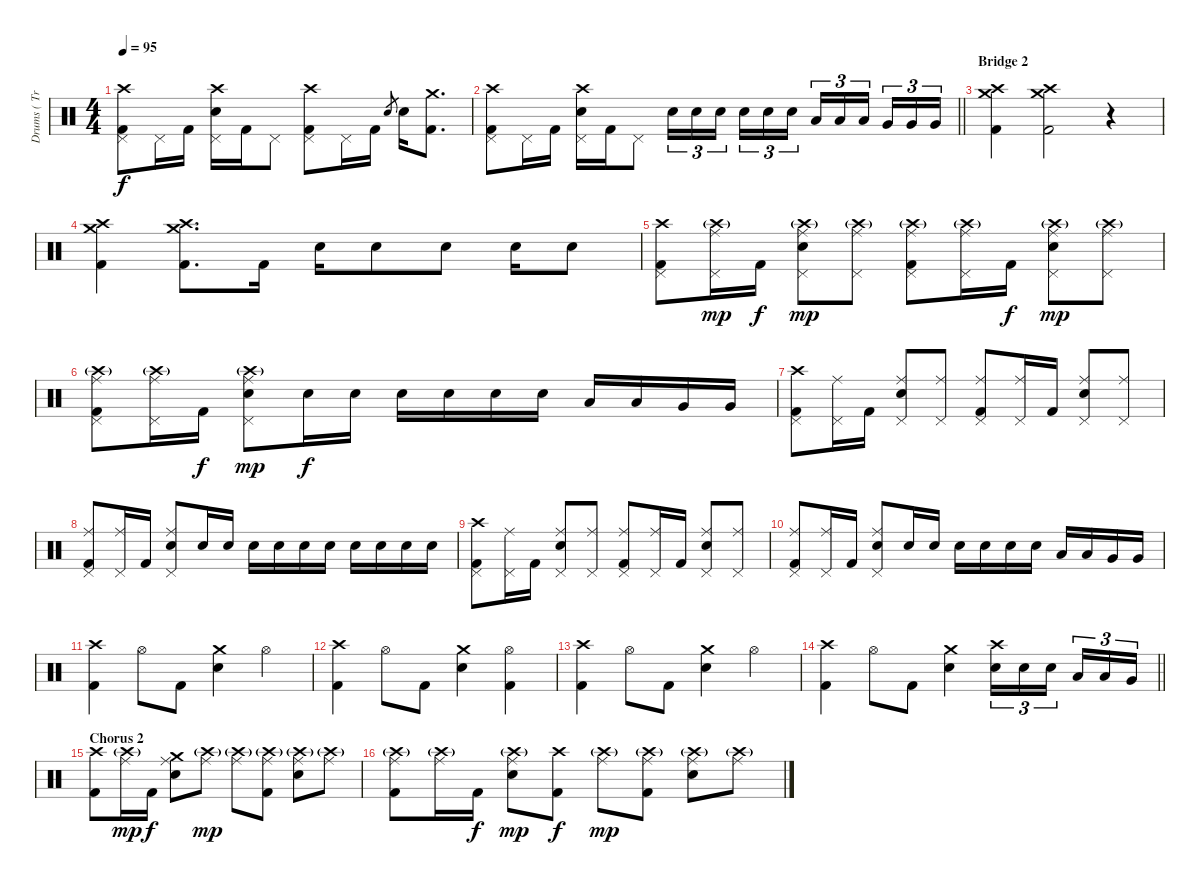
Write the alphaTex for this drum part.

\track ("Drums ( Trivett Wingo )" "Drums ( Tr") {instrument percussion}
\staff {score}
\articulation defaults
\ts (4 4)
\tempo 95
\clef neutral
\ks c
("Crash high (hit)" "Pedal Hi-Hat (hit)" "Kick (hit) 2").8{dy f} "Pedal Hi-Hat (hit)".16 "Kick (hit) 2".16 ("Crash high (hit)" "Pedal Hi-Hat (hit)" "Electric Snare (hit)").16 "Kick (hit) 2".16 "Pedal Hi-Hat (hit)".8 ("Crash high (hit)" "Pedal Hi-Hat (hit)" "Kick (hit) 2").8 "Pedal Hi-Hat (hit)".16 "Kick (hit) 2".16 "Electric Snare (hit)".8{gr} "Electric Snare (hit)".16 ("Crash medium (hit)" "Kick (hit) 2").8{d} |
\barLineRight lightlight
("Crash high (hit)" "Pedal Hi-Hat (hit)" "Kick (hit) 2").8 "Pedal Hi-Hat (hit)".16 "Kick (hit) 2".16 ("Crash high (hit)" "Pedal Hi-Hat (hit)" "Electric Snare (hit)").16 "Kick (hit) 2".16 "Pedal Hi-Hat (hit)".8 "Electric Snare (hit)".16{tu (3 2)} "Electric Snare (hit)".16{tu (3 2)} "Electric Snare (hit)".16{tu (3 2) beam splitsecondary} "Electric Snare (hit)".16{tu (3 2)} "Electric Snare (hit)".16{tu (3 2)} "Electric Snare (hit)".16{tu (3 2)} "Low Tom (hit)".16{tu (3 2)} "Low Tom (hit)".16{tu (3 2)} "Low Tom (hit)".16{tu (3 2) beam splitsecondary} "Very Low Tom (hit)".16{tu (3 2)} "Very Low Tom (hit)".16{tu (3 2)} "Very Low Tom (hit)".16{tu (3 2)} |
\section ("" "Bridge 2")
("Crash high (hit)" "Crash medium (hit)" "Kick (hit) 2").4 ("Crash high (hit)" "Crash medium (hit)" "Kick (hit) 2").2 r.4 |
("Crash high (hit)" "Crash medium (hit)" "Kick (hit) 2").4 ("Crash high (hit)" "Crash medium (hit)" "Kick (hit) 2").8{d} "Kick (hit) 2".16 "Electric Snare (hit)".16 "Electric Snare (hit)".8 "Electric Snare (hit)".8 "Electric Snare (hit)".16 "Electric Snare (hit)".8 |
("Crash high (hit)" "Pedal Hi-Hat (hit)" "Kick (hit) 2").8 ("Crash high (hit)"{g} "Ride (middle)" "Pedal Hi-Hat (hit)").16{dy mp} "Kick (hit) 2".16{dy f} ("Crash high (hit)"{g} "Ride (middle)" "Pedal Hi-Hat (hit)" "Electric Snare (hit)").8{dy mp} ("Crash high (hit)"{g} "Ride (middle)" "Pedal Hi-Hat (hit)").8 ("Crash high (hit)"{g} "Ride (middle)" "Pedal Hi-Hat (hit)" "Kick (hit) 2").8 ("Crash high (hit)"{g} "Ride (middle)" "Pedal Hi-Hat (hit)").16 "Kick (hit) 2".16{dy f} ("Crash high (hit)"{g} "Ride (middle)" "Pedal Hi-Hat (hit)" "Electric Snare (hit)").8{dy mp} ("Crash high (hit)"{g} "Ride (middle)" "Pedal Hi-Hat (hit)").8 |
("Crash high (hit)"{g} "Ride (middle)" "Pedal Hi-Hat (hit)" "Kick (hit) 2").8 ("Crash high (hit)"{g} "Ride (middle)" "Pedal Hi-Hat (hit)").16 "Kick (hit) 2".16{dy f} ("Crash high (hit)"{g} "Ride (middle)" "Pedal Hi-Hat (hit)" "Electric Snare (hit)").8{dy mp} "Electric Snare (hit)".16{dy f} "Electric Snare (hit)".16 "Electric Snare (hit)".16 "Electric Snare (hit)".16 "Electric Snare (hit)".16 "Electric Snare (hit)".16 "Low Tom (hit)".16 "Low Tom (hit)".16 "Very Low Tom (hit)".16 "Very Low Tom (hit)".16 |
("Crash high (hit)" "Pedal Hi-Hat (hit)" "Kick (hit) 2").8 ("Ride (middle)" "Pedal Hi-Hat (hit)").16 "Kick (hit) 2".16 ("Ride (middle)" "Pedal Hi-Hat (hit)" "Electric Snare (hit)").8 ("Ride (middle)" "Pedal Hi-Hat (hit)").8 ("Ride (middle)" "Pedal Hi-Hat (hit)" "Kick (hit) 2").8 ("Ride (middle)" "Pedal Hi-Hat (hit)").16 "Kick (hit) 2".16 ("Ride (middle)" "Pedal Hi-Hat (hit)" "Electric Snare (hit)").8 ("Ride (middle)" "Pedal Hi-Hat (hit)").8 |
("Ride (middle)" "Pedal Hi-Hat (hit)" "Kick (hit) 2").8 ("Ride (middle)" "Pedal Hi-Hat (hit)").16 "Kick (hit) 2".16 ("Ride (middle)" "Pedal Hi-Hat (hit)" "Electric Snare (hit)").8 "Electric Snare (hit)".16 "Electric Snare (hit)".16 "Electric Snare (hit)".16 "Electric Snare (hit)".16 "Electric Snare (hit)".16 "Electric Snare (hit)".16 "Electric Snare (hit)".16 "Electric Snare (hit)".16 "Electric Snare (hit)".16 "Electric Snare (hit)".16 |
("Crash high (hit)" "Pedal Hi-Hat (hit)" "Kick (hit) 2").8 ("Ride (middle)" "Pedal Hi-Hat (hit)").16 "Kick (hit) 2".16 ("Ride (middle)" "Pedal Hi-Hat (hit)" "Electric Snare (hit)").8 ("Ride (middle)" "Pedal Hi-Hat (hit)").8 ("Ride (middle)" "Pedal Hi-Hat (hit)" "Kick (hit) 2").8 ("Ride (middle)" "Pedal Hi-Hat (hit)").16 "Kick (hit) 2".16 ("Ride (middle)" "Pedal Hi-Hat (hit)" "Electric Snare (hit)").8 ("Ride (middle)" "Pedal Hi-Hat (hit)").8 |
("Ride (middle)" "Pedal Hi-Hat (hit)" "Kick (hit) 2").8 ("Ride (middle)" "Pedal Hi-Hat (hit)").16 "Kick (hit) 2".16 ("Ride (middle)" "Pedal Hi-Hat (hit)" "Electric Snare (hit)").8 "Electric Snare (hit)".16 "Electric Snare (hit)".16 "Electric Snare (hit)".16 "Electric Snare (hit)".16 "Electric Snare (hit)".16 "Electric Snare (hit)".16 "Low Tom (hit)".16 "Low Tom (hit)".16 "Very Low Tom (hit)".16 "Very Low Tom (hit)".16 |
("Crash high (hit)" "Kick (hit) 2").4 "Hi-Hat (open)".8 "Kick (hit) 2".8 ("Crash medium (hit)" "Electric Snare (hit)").4 "Hi-Hat (open)".4 |
("Crash high (hit)" "Kick (hit) 2").4 "Hi-Hat (open)".8 "Kick (hit) 2".8 ("Crash medium (hit)" "Electric Snare (hit)").4 ("Hi-Hat (open)" "Kick (hit) 2").4 |
("Crash high (hit)" "Kick (hit) 2").4 "Hi-Hat (open)".8 "Kick (hit) 2".8 ("Crash medium (hit)" "Electric Snare (hit)").4 "Hi-Hat (open)".4 |
\barLineRight lightlight
("Crash high (hit)" "Kick (hit) 2").4 "Hi-Hat (open)".8 "Kick (hit) 2".8 ("Crash medium (hit)" "Electric Snare (hit)").4 ("Crash high (hit)" "Electric Snare (hit)").16{tu (3 2)} "Electric Snare (hit)".16{tu (3 2)} "Electric Snare (hit)".16{tu (3 2) beam splitsecondary} "Low Tom (hit)".16{tu (3 2)} "Low Tom (hit)".16{tu (3 2)} "Very Low Tom (hit)".16{tu (3 2)} |
\section ("" "Chorus 2")
("Crash high (hit)" "Kick (hit) 2").8 ("Crash high (hit)"{g} "Ride (middle)").16{dy mp} "Kick (hit) 2".16{dy f} ("Crash medium (hit)" "Ride (middle)" "Electric Snare (hit)").8 ("Crash high (hit)"{g} "Ride (middle)").8{dy mp} ("Crash high (hit)"{g} "Ride (middle)").8 ("Crash high (hit)"{g} "Ride (middle)" "Kick (hit) 2").8 ("Crash high (hit)"{g} "Ride (middle)" "Electric Snare (hit)").8 ("Crash high (hit)"{g} "Ride (middle)").8 |
("Crash high (hit)"{g} "Ride (middle)" "Kick (hit) 2").8 ("Crash high (hit)"{g} "Ride (middle)").16 "Kick (hit) 2".16{dy f} ("Crash high (hit)"{g} "Ride (middle)" "Electric Snare (hit)").8{dy mp} ("Crash high (hit)" "Kick (hit) 2").8{dy f} ("Crash high (hit)"{g} "Ride (middle)").8{dy mp} ("Crash high (hit)"{g} "Ride (middle)" "Kick (hit) 2").8 ("Crash high (hit)"{g} "Ride (middle)" "Electric Snare (hit)").8 ("Crash high (hit)"{g} "Ride (middle)").8
